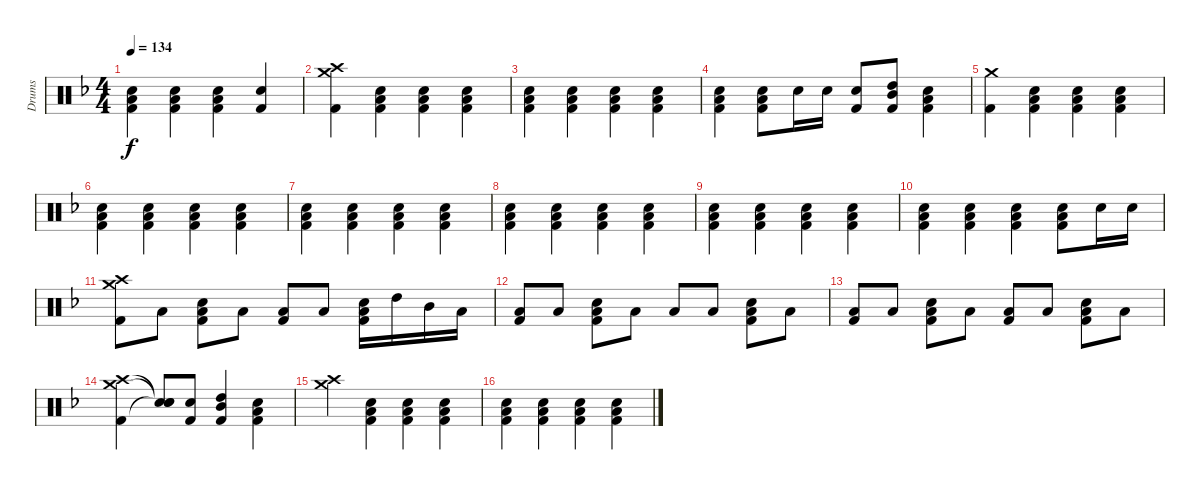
\track ("Drums" "Drums") {instrument percussion}
\staff {score}
\articulation defaults
\ts (4 4)
\tempo 134
\clef neutral
\ks f
("Low Tom (hit)" "Kick (hit) 2" "Snare (hit) 2").4{dy f} ("Low Tom (hit)" "Kick (hit) 2" "Snare (hit) 2").4 ("Low Tom (hit)" "Kick (hit) 2" "Snare (hit) 2").4 ("Kick (hit) 2" "Snare (hit) 2").4 |
("Crash medium (hit)" "Kick (hit) 2" "Crash high (hit)").4 ("Low Tom (hit)" "Kick (hit) 2" "Snare (hit) 2").4 ("Low Tom (hit)" "Kick (hit) 2" "Snare (hit) 2").4 ("Low Tom (hit)" "Kick (hit) 2" "Snare (hit) 2").4 |
("Low Tom (hit)" "Kick (hit) 2" "Snare (hit) 2").4 ("Low Tom (hit)" "Kick (hit) 2" "Snare (hit) 2").4 ("Low Tom (hit)" "Kick (hit) 2" "Snare (hit) 2").4 ("Low Tom (hit)" "Kick (hit) 2" "Snare (hit) 2").4 |
("Low Tom (hit)" "Kick (hit) 2" "Snare (hit) 2").4 ("Low Tom (hit)" "Kick (hit) 2" "Snare (hit) 2").8 "Snare (hit) 2".16 "Snare (hit) 2".16 ("Snare (hit) 2" "Kick (hit) 2").8 ("High Tom (hit)" "Kick (hit) 2" "Mid Tom (hit)").8 ("Snare (hit) 2" "Kick (hit) 2" "Low Tom (hit)").4 |
("Crash medium (hit)" "Kick (hit) 2").4 ("Low Tom (hit)" "Kick (hit) 2" "Snare (hit) 2").4 ("Low Tom (hit)" "Kick (hit) 2" "Snare (hit) 2").4 ("Low Tom (hit)" "Kick (hit) 2" "Snare (hit) 2").4 |
("Low Tom (hit)" "Kick (hit) 2" "Snare (hit) 2").4 ("Low Tom (hit)" "Kick (hit) 2" "Snare (hit) 2").4 ("Low Tom (hit)" "Kick (hit) 2" "Snare (hit) 2").4 ("Low Tom (hit)" "Kick (hit) 2" "Snare (hit) 2").4 |
("Low Tom (hit)" "Kick (hit) 2" "Snare (hit) 2").4 ("Low Tom (hit)" "Kick (hit) 2" "Snare (hit) 2").4 ("Low Tom (hit)" "Kick (hit) 2" "Snare (hit) 2").4 ("Low Tom (hit)" "Kick (hit) 2" "Snare (hit) 2").4 |
("Low Tom (hit)" "Kick (hit) 2" "Snare (hit) 2").4 ("Low Tom (hit)" "Kick (hit) 2" "Snare (hit) 2").4 ("Low Tom (hit)" "Kick (hit) 2" "Snare (hit) 2").4 ("Low Tom (hit)" "Kick (hit) 2" "Snare (hit) 2").4 |
("Low Tom (hit)" "Kick (hit) 2" "Snare (hit) 2").4 ("Low Tom (hit)" "Kick (hit) 2" "Snare (hit) 2").4 ("Low Tom (hit)" "Kick (hit) 2" "Snare (hit) 2").4 ("Low Tom (hit)" "Kick (hit) 2" "Snare (hit) 2").4 |
("Low Tom (hit)" "Kick (hit) 2" "Snare (hit) 2").4 ("Low Tom (hit)" "Kick (hit) 2" "Snare (hit) 2").4 ("Low Tom (hit)" "Kick (hit) 2" "Snare (hit) 2").4 ("Low Tom (hit)" "Kick (hit) 2" "Snare (hit) 2").8 "Snare (hit) 2".16 "Snare (hit) 2".16 |
("Crash high (hit)" "Crash medium (hit)" "Kick (hit) 2").8 "Low Tom (hit)".8 ("Low Tom (hit)" "Snare (hit) 2" "Kick (hit) 2").8 "Low Tom (hit)".8 ("Low Tom (hit)" "Kick (hit) 2").8 "Low Tom (hit)".8 ("Low Tom (hit)" "Snare (hit) 2" "Kick (hit) 2").16 "High Tom (hit)".16 "Mid Tom (hit)".16 "Low Tom (hit)".16 |
("Low Tom (hit)" "Kick (hit) 2").8 "Low Tom (hit)".8 ("Low Tom (hit)" "Snare (hit) 2" "Kick (hit) 2").8 "Low Tom (hit)".8 "Low Tom (hit)".8 "Low Tom (hit)".8 ("Low Tom (hit)" "Snare (hit) 2" "Kick (hit) 2").8 "Low Tom (hit)".8 |
("Low Tom (hit)" "Kick (hit) 2").8 "Low Tom (hit)".8 ("Low Tom (hit)" "Kick (hit) 2" "Snare (hit) 2").8 "Low Tom (hit)".8 ("Low Tom (hit)" "Kick (hit) 2").8 "Low Tom (hit)".8 ("Low Tom (hit)" "Snare (hit) 2" "Kick (hit) 2").8 "Low Tom (hit)".8 |
("Kick (hit) 2" "Crash medium (hit)" "Crash high (hit)").4 ("Snare (hit)"{t} "Snare (hit)"{t} "Snare (hit)"{t}).8 ("Snare (hit) 2" "Kick (hit) 2").8 ("High Tom (hit)" "Kick (hit) 2" "Mid Tom (hit)").4 ("Snare (hit) 2" "Kick (hit) 2" "Low Tom (hit)").4 |
("Crash medium (hit)" "Crash high (hit)").4 ("Low Tom (hit)" "Kick (hit) 2" "Snare (hit) 2").4 ("Low Tom (hit)" "Kick (hit) 2" "Snare (hit) 2").4 ("Low Tom (hit)" "Kick (hit) 2" "Snare (hit) 2").4 |
("Low Tom (hit)" "Kick (hit) 2" "Snare (hit) 2").4 ("Low Tom (hit)" "Kick (hit) 2" "Snare (hit) 2").4 ("Low Tom (hit)" "Kick (hit) 2" "Snare (hit) 2").4 ("Low Tom (hit)" "Kick (hit) 2" "Snare (hit) 2").4
